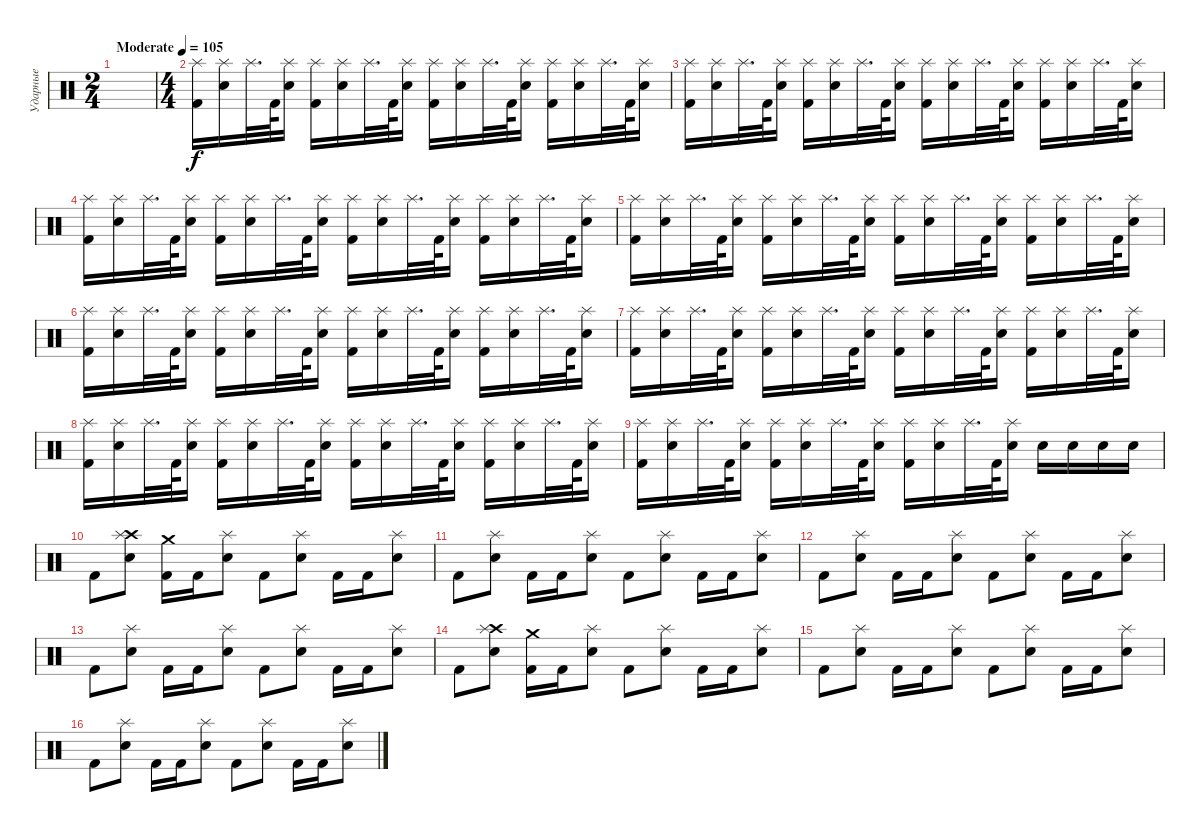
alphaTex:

\track ("Ударные" "Ударные") {instrument percussion}
\staff {score}
\articulation defaults
\ts (2 4)
\tempo (105 "Moderate")
\clef neutral
\ks c
|
\ts (4 4)
("Splash (hit)" "Kick (hit) 2").16 ("Splash (hit)" "Electric Snare (hit)").16 "Splash (hit)".32{d} "Kick (hit) 2".64 ("Splash (hit)" "Electric Snare (hit)").16 ("Splash (hit)" "Kick (hit) 2").16 ("Splash (hit)" "Electric Snare (hit)").16 "Splash (hit)".32{d} "Kick (hit) 2".64 ("Splash (hit)" "Electric Snare (hit)").16 ("Splash (hit)" "Kick (hit) 2").16 ("Splash (hit)" "Electric Snare (hit)").16 "Splash (hit)".32{d} "Kick (hit) 2".64 ("Splash (hit)" "Electric Snare (hit)").16 ("Splash (hit)" "Kick (hit) 2").16 ("Splash (hit)" "Electric Snare (hit)").16 "Splash (hit)".32{d} "Kick (hit) 2".64 ("Splash (hit)" "Electric Snare (hit)").16 |
("Splash (hit)" "Kick (hit) 2").16 ("Splash (hit)" "Electric Snare (hit)").16 "Splash (hit)".32{d} "Kick (hit) 2".64 ("Splash (hit)" "Electric Snare (hit)").16 ("Splash (hit)" "Kick (hit) 2").16 ("Splash (hit)" "Electric Snare (hit)").16 "Splash (hit)".32{d} "Kick (hit) 2".64 ("Splash (hit)" "Electric Snare (hit)").16 ("Splash (hit)" "Kick (hit) 2").16 ("Splash (hit)" "Electric Snare (hit)").16 "Splash (hit)".32{d} "Kick (hit) 2".64 ("Splash (hit)" "Electric Snare (hit)").16 ("Splash (hit)" "Kick (hit) 2").16 ("Splash (hit)" "Electric Snare (hit)").16 "Splash (hit)".32{d} "Kick (hit) 2".64 ("Splash (hit)" "Electric Snare (hit)").16 |
("Splash (hit)" "Kick (hit) 2").16 ("Splash (hit)" "Electric Snare (hit)").16 "Splash (hit)".32{d} "Kick (hit) 2".64 ("Splash (hit)" "Electric Snare (hit)").16 ("Splash (hit)" "Kick (hit) 2").16 ("Splash (hit)" "Electric Snare (hit)").16 "Splash (hit)".32{d} "Kick (hit) 2".64 ("Splash (hit)" "Electric Snare (hit)").16 ("Splash (hit)" "Kick (hit) 2").16 ("Splash (hit)" "Electric Snare (hit)").16 "Splash (hit)".32{d} "Kick (hit) 2".64 ("Splash (hit)" "Electric Snare (hit)").16 ("Splash (hit)" "Kick (hit) 2").16 ("Splash (hit)" "Electric Snare (hit)").16 "Splash (hit)".32{d} "Kick (hit) 2".64 ("Splash (hit)" "Electric Snare (hit)").16 |
("Splash (hit)" "Kick (hit) 2").16 ("Splash (hit)" "Electric Snare (hit)").16 "Splash (hit)".32{d} "Kick (hit) 2".64 ("Splash (hit)" "Electric Snare (hit)").16 ("Splash (hit)" "Kick (hit) 2").16 ("Splash (hit)" "Electric Snare (hit)").16 "Splash (hit)".32{d} "Kick (hit) 2".64 ("Splash (hit)" "Electric Snare (hit)").16 ("Splash (hit)" "Kick (hit) 2").16 ("Splash (hit)" "Electric Snare (hit)").16 "Splash (hit)".32{d} "Kick (hit) 2".64 ("Splash (hit)" "Electric Snare (hit)").16 ("Splash (hit)" "Kick (hit) 2").16 ("Splash (hit)" "Electric Snare (hit)").16 "Splash (hit)".32{d} "Kick (hit) 2".64 ("Splash (hit)" "Electric Snare (hit)").16 |
("Splash (hit)" "Kick (hit) 2").16 ("Splash (hit)" "Electric Snare (hit)").16 "Splash (hit)".32{d} "Kick (hit) 2".64 ("Splash (hit)" "Electric Snare (hit)").16 ("Splash (hit)" "Kick (hit) 2").16 ("Splash (hit)" "Electric Snare (hit)").16 "Splash (hit)".32{d} "Kick (hit) 2".64 ("Splash (hit)" "Electric Snare (hit)").16 ("Splash (hit)" "Kick (hit) 2").16 ("Splash (hit)" "Electric Snare (hit)").16 "Splash (hit)".32{d} "Kick (hit) 2".64 ("Splash (hit)" "Electric Snare (hit)").16 ("Splash (hit)" "Kick (hit) 2").16 ("Splash (hit)" "Electric Snare (hit)").16 "Splash (hit)".32{d} "Kick (hit) 2".64 ("Splash (hit)" "Electric Snare (hit)").16 |
("Splash (hit)" "Kick (hit) 2").16 ("Splash (hit)" "Electric Snare (hit)").16 "Splash (hit)".32{d} "Kick (hit) 2".64 ("Splash (hit)" "Electric Snare (hit)").16 ("Splash (hit)" "Kick (hit) 2").16 ("Splash (hit)" "Electric Snare (hit)").16 "Splash (hit)".32{d} "Kick (hit) 2".64 ("Splash (hit)" "Electric Snare (hit)").16 ("Splash (hit)" "Kick (hit) 2").16 ("Splash (hit)" "Electric Snare (hit)").16 "Splash (hit)".32{d} "Kick (hit) 2".64 ("Splash (hit)" "Electric Snare (hit)").16 ("Splash (hit)" "Kick (hit) 2").16 ("Splash (hit)" "Electric Snare (hit)").16 "Splash (hit)".32{d} "Kick (hit) 2".64 ("Splash (hit)" "Electric Snare (hit)").16 |
("Splash (hit)" "Kick (hit) 2").16 ("Splash (hit)" "Electric Snare (hit)").16 "Splash (hit)".32{d} "Kick (hit) 2".64 ("Splash (hit)" "Electric Snare (hit)").16 ("Splash (hit)" "Kick (hit) 2").16 ("Splash (hit)" "Electric Snare (hit)").16 "Splash (hit)".32{d} "Kick (hit) 2".64 ("Splash (hit)" "Electric Snare (hit)").16 ("Splash (hit)" "Kick (hit) 2").16 ("Splash (hit)" "Electric Snare (hit)").16 "Splash (hit)".32{d} "Kick (hit) 2".64 ("Splash (hit)" "Electric Snare (hit)").16 ("Splash (hit)" "Kick (hit) 2").16 ("Splash (hit)" "Electric Snare (hit)").16 "Splash (hit)".32{d} "Kick (hit) 2".64 ("Splash (hit)" "Electric Snare (hit)").16 |
("Splash (hit)" "Kick (hit) 2").16 ("Splash (hit)" "Electric Snare (hit)").16 "Splash (hit)".32{d} "Kick (hit) 2".64 ("Splash (hit)" "Electric Snare (hit)").16 ("Splash (hit)" "Kick (hit) 2").16 ("Splash (hit)" "Electric Snare (hit)").16 "Splash (hit)".32{d} "Kick (hit) 2".64 ("Splash (hit)" "Electric Snare (hit)").16 ("Splash (hit)" "Kick (hit) 2").16 ("Splash (hit)" "Electric Snare (hit)").16 "Splash (hit)".32{d} "Kick (hit) 2".64 ("Splash (hit)" "Electric Snare (hit)").16 "Electric Snare (hit)".16 "Electric Snare (hit)".16 "Electric Snare (hit)".16 "Electric Snare (hit)".16 |
"Kick (hit) 2".8 ("Crash high (hit)" "Splash (hit)" "Electric Snare (hit)").8 ("Crash medium (hit)" "Kick (hit) 2").16 "Kick (hit) 2".16 ("Splash (hit)" "Electric Snare (hit)").8 "Kick (hit) 2".8 ("Splash (hit)" "Electric Snare (hit)").8 "Kick (hit) 2".16 "Kick (hit) 2".16 ("Splash (hit)" "Electric Snare (hit)").8 |
"Kick (hit) 2".8 ("Splash (hit)" "Electric Snare (hit)").8 "Kick (hit) 2".16 "Kick (hit) 2".16 ("Splash (hit)" "Electric Snare (hit)").8 "Kick (hit) 2".8 ("Splash (hit)" "Electric Snare (hit)").8 "Kick (hit) 2".16 "Kick (hit) 2".16 ("Splash (hit)" "Electric Snare (hit)").8 |
"Kick (hit) 2".8 ("Splash (hit)" "Electric Snare (hit)").8 "Kick (hit) 2".16 "Kick (hit) 2".16 ("Splash (hit)" "Electric Snare (hit)").8 "Kick (hit) 2".8 ("Splash (hit)" "Electric Snare (hit)").8 "Kick (hit) 2".16 "Kick (hit) 2".16 ("Splash (hit)" "Electric Snare (hit)").8 |
"Kick (hit) 2".8 ("Splash (hit)" "Electric Snare (hit)").8 "Kick (hit) 2".16 "Kick (hit) 2".16 ("Splash (hit)" "Electric Snare (hit)").8 "Kick (hit) 2".8 ("Splash (hit)" "Electric Snare (hit)").8 "Kick (hit) 2".16 "Kick (hit) 2".16 ("Splash (hit)" "Electric Snare (hit)").8 |
"Kick (hit) 2".8 ("Crash high (hit)" "Splash (hit)" "Electric Snare (hit)").8 ("Crash medium (hit)" "Kick (hit) 2").16 "Kick (hit) 2".16 ("Splash (hit)" "Electric Snare (hit)").8 "Kick (hit) 2".8 ("Splash (hit)" "Electric Snare (hit)").8 "Kick (hit) 2".16 "Kick (hit) 2".16 ("Splash (hit)" "Electric Snare (hit)").8 |
"Kick (hit) 2".8 ("Splash (hit)" "Electric Snare (hit)").8 "Kick (hit) 2".16 "Kick (hit) 2".16 ("Splash (hit)" "Electric Snare (hit)").8 "Kick (hit) 2".8 ("Splash (hit)" "Electric Snare (hit)").8 "Kick (hit) 2".16 "Kick (hit) 2".16 ("Splash (hit)" "Electric Snare (hit)").8 |
"Kick (hit) 2".8 ("Splash (hit)" "Electric Snare (hit)").8 "Kick (hit) 2".16 "Kick (hit) 2".16 ("Splash (hit)" "Electric Snare (hit)").8 "Kick (hit) 2".8 ("Splash (hit)" "Electric Snare (hit)").8 "Kick (hit) 2".16 "Kick (hit) 2".16 ("Splash (hit)" "Electric Snare (hit)").8
